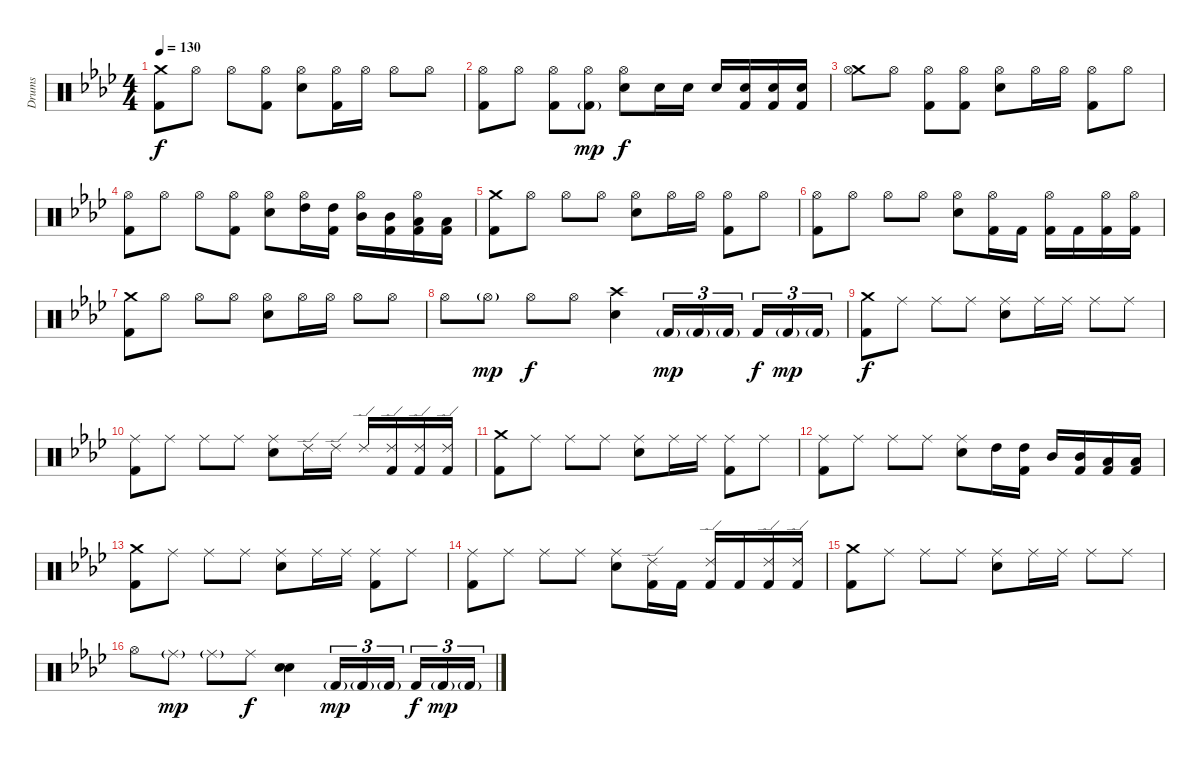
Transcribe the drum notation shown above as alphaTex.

\track ("Drums" "Drums") {instrument percussion}
\staff {score}
\articulation defaults
\ts (4 4)
\tempo 130
\clef neutral
\ks ab
("Crash medium (hit)" "Kick (hit) 2").8{dy f} "Hi-Hat (open)".8 "Hi-Hat (open)".8 ("Kick (hit) 2" "Hi-Hat (open)").8 ("Electric Snare (hit)" "Hi-Hat (open)").8 ("Kick (hit) 2" "Hi-Hat (open)").16 "Hi-Hat (open)".16 "Hi-Hat (open)".8 "Hi-Hat (open)".8 |
("Kick (hit) 2" "Hi-Hat (open)").8 "Hi-Hat (open)".8 ("Kick (hit) 2" "Hi-Hat (open)").8 ("Kick (hit) 2"{g} "Hi-Hat (open)").8{dy mp} ("Electric Snare (hit)" "Hi-Hat (open)").8{dy f} "Electric Snare (hit)".16 "Electric Snare (hit)".16 "Electric Snare (hit)".16 ("Kick (hit) 2" "Electric Snare (hit)").16 ("Kick (hit) 2" "Electric Snare (hit)").16 ("Kick (hit) 2" "Electric Snare (hit)").16 |
("Crash medium (hit)" "Hi-Hat (open)").8 "Hi-Hat (open)".8 ("Kick (hit) 2" "Hi-Hat (open)").8 ("Kick (hit) 2" "Hi-Hat (open)").8 ("Electric Snare (hit)" "Hi-Hat (open)").8 "Hi-Hat (open)".16 "Hi-Hat (open)".16 ("Kick (hit) 2" "Hi-Hat (open)").8 "Hi-Hat (open)".8 |
("Kick (hit) 2" "Hi-Hat (open)").8 "Hi-Hat (open)".8 "Hi-Hat (open)".8 ("Kick (hit) 2" "Hi-Hat (open)").8 ("Electric Snare (hit)" "Hi-Hat (open)").8 ("High Tom (hit)" "Hi-Hat (open)").16 ("Kick (hit) 2" "High Tom (hit)").16 ("Mid Tom (hit)" "Hi-Hat (open)").16 ("Kick (hit) 2" "Mid Tom (hit)").16 ("Kick (hit) 2" "Low Tom (hit)" "Hi-Hat (open)").16 ("Kick (hit) 2" "Low Tom (hit)").16 |
("Crash medium (hit)" "Kick (hit) 2").8 "Hi-Hat (open)".8 "Hi-Hat (open)".8 "Hi-Hat (open)".8 ("Electric Snare (hit)" "Hi-Hat (open)").8 "Hi-Hat (open)".16 "Hi-Hat (open)".16 ("Kick (hit) 2" "Hi-Hat (open)").8 "Hi-Hat (open)".8 |
("Kick (hit) 2" "Hi-Hat (open)").8 "Hi-Hat (open)".8 "Hi-Hat (open)".8 "Hi-Hat (open)".8 ("Electric Snare (hit)" "Hi-Hat (open)").8 ("Kick (hit) 2" "Hi-Hat (open)").16 "Kick (hit) 2".16 ("Kick (hit) 2" "Hi-Hat (open)").16 "Kick (hit) 2".16 ("Kick (hit) 2" "Hi-Hat (open)").16 ("Kick (hit) 2" "Hi-Hat (open)").16 |
("Crash medium (hit)" "Kick (hit) 2").8 "Hi-Hat (open)".8 "Hi-Hat (open)".8 "Hi-Hat (open)".8 ("Electric Snare (hit)" "Hi-Hat (open)").8 "Hi-Hat (open)".16 "Hi-Hat (open)".16 "Hi-Hat (open)".8 "Hi-Hat (open)".8 |
"Hi-Hat (open)".8 "Hi-Hat (open)"{g}.8{dy mp} "Hi-Hat (open)".8{dy f} "Hi-Hat (open)".8 ("Crash high (hit)" "Electric Snare (hit)").4 "Kick (hit) 2"{g}.16{tu (3 2) dy mp} "Kick (hit) 2"{g}.16{tu (3 2)} "Kick (hit) 2"{g}.16{tu (3 2)} "Kick (hit) 2".16{tu (3 2) dy f} "Kick (hit) 2"{g}.16{tu (3 2) dy mp} "Kick (hit) 2"{g}.16{tu (3 2)} |
("Crash medium (hit)" "Kick (hit) 2").8{dy f} "Ride (middle)".8 "Ride (middle)".8 "Ride (middle)".8 ("Electric Snare (hit)" "Ride (middle)").8 "Ride (middle)".16 "Ride (middle)".16 "Ride (middle)".8 "Ride (middle)".8 |
("Kick (hit) 2" "Ride (middle)").8 "Ride (middle)".8 "Ride (middle)".8 "Ride (middle)".8 ("Electric Snare (hit)" "Ride (middle)").8 "Ride (edge) 2".16 "Ride (edge) 2".16 "Ride (edge) 2".16 ("Kick (hit) 2" "Ride (edge) 2").16 ("Kick (hit) 2" "Ride (edge) 2").16 ("Kick (hit) 2" "Ride (edge) 2").16 |
("Crash medium (hit)" "Kick (hit) 2").8 "Ride (middle)".8 "Ride (middle)".8 "Ride (middle)".8 ("Electric Snare (hit)" "Ride (middle)").8 "Ride (middle)".16 "Ride (middle)".16 ("Kick (hit) 2" "Ride (middle)").8 "Ride (middle)".8 |
("Kick (hit) 2" "Ride (middle)").8 "Ride (middle)".8 "Ride (middle)".8 "Ride (middle)".8 ("Electric Snare (hit)" "Ride (middle)").8 "High Tom (hit)".16 ("Kick (hit) 2" "High Tom (hit)").16 "Mid Tom (hit)".16 ("Kick (hit) 2" "Mid Tom (hit)").16 ("Kick (hit) 2" "Low Tom (hit)").16 ("Kick (hit) 2" "Low Tom (hit)").16 |
("Crash medium (hit)" "Kick (hit) 2").8 "Ride (middle)".8 "Ride (middle)".8 "Ride (middle)".8 ("Electric Snare (hit)" "Ride (middle)").8 "Ride (middle)".16 "Ride (middle)".16 ("Kick (hit) 2" "Ride (middle)").8 "Ride (middle)".8 |
("Kick (hit) 2" "Ride (middle)").8 "Ride (middle)".8 "Ride (middle)".8 "Ride (middle)".8 ("Electric Snare (hit)" "Ride (middle)").8 ("Kick (hit) 2" "Ride (edge) 2").16 "Kick (hit) 2".16 ("Kick (hit) 2" "Ride (edge) 2").16 "Kick (hit) 2".16 ("Kick (hit) 2" "Ride (edge) 2").16 ("Kick (hit) 2" "Ride (edge) 2").16 |
("Crash medium (hit)" "Kick (hit) 2").8 "Ride (middle)".8 "Ride (middle)".8 "Ride (middle)".8 ("Electric Snare (hit)" "Ride (middle)").8 "Ride (middle)".16 "Ride (middle)".16 "Ride (middle)".8 "Ride (middle)".8 |
"Hi-Hat (open)".8 "Ride (middle)"{g}.8{dy mp} "Ride (middle)"{g}.8 "Ride (middle)".8{dy f} ("Electric Snare (hit)" "Electric Snare (hit)").4 "Kick (hit) 2"{g}.16{tu (3 2) dy mp} "Kick (hit) 2"{g}.16{tu (3 2)} "Kick (hit) 2"{g}.16{tu (3 2)} "Kick (hit) 2".16{tu (3 2) dy f} "Kick (hit) 2"{g}.16{tu (3 2) dy mp} "Kick (hit) 2"{g}.16{tu (3 2)}
